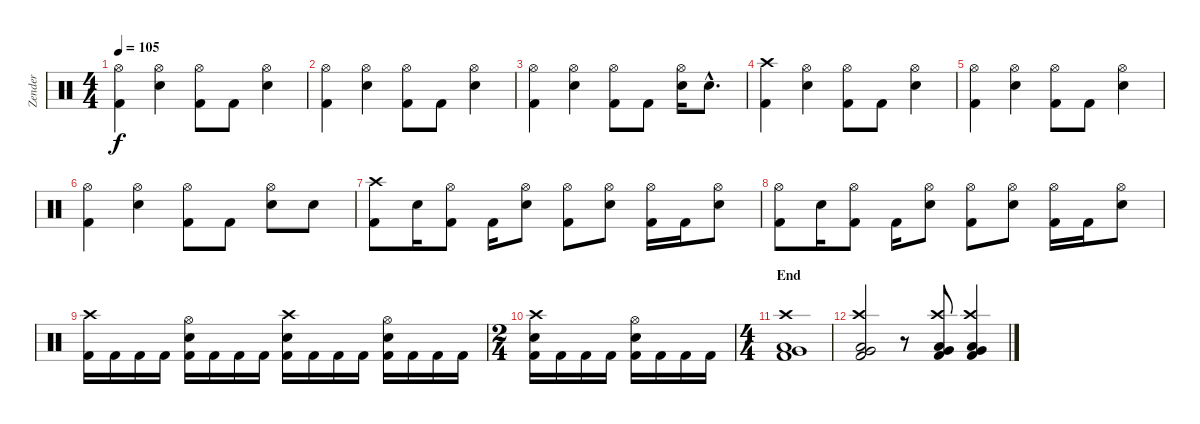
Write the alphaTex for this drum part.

\track ("Zender" "Zender") {instrument percussion}
\staff {score}
\articulation defaults
\ts (4 4)
\tempo 105
\clef neutral
\ks c
("Hi-Hat (open)" "Kick (hit) 2").4{dy f} ("Hi-Hat (open)" "Electric Snare (hit)").4 ("Hi-Hat (open)" "Kick (hit) 2").8 "Kick (hit) 2".8 ("Hi-Hat (open)" "Electric Snare (hit)").4 |
("Hi-Hat (open)" "Kick (hit) 2").4 ("Hi-Hat (open)" "Electric Snare (hit)").4 ("Hi-Hat (open)" "Kick (hit) 2").8 "Kick (hit) 2".8 ("Hi-Hat (open)" "Electric Snare (hit)").4 |
("Hi-Hat (open)" "Kick (hit) 2").4 ("Hi-Hat (open)" "Electric Snare (hit)").4 ("Hi-Hat (open)" "Kick (hit) 2").8 "Kick (hit) 2".8 ("Hi-Hat (open)" "Electric Snare (hit)").16 "Electric Snare (hit)"{hac}.8{d} |
("Crash high (hit)" "Kick (hit) 2").4 ("Hi-Hat (open)" "Electric Snare (hit)").4 ("Hi-Hat (open)" "Kick (hit) 2").8 "Kick (hit) 2".8 ("Hi-Hat (open)" "Electric Snare (hit)").4 |
("Hi-Hat (open)" "Kick (hit) 2").4 ("Hi-Hat (open)" "Electric Snare (hit)").4 ("Hi-Hat (open)" "Kick (hit) 2").8 "Kick (hit) 2".8 ("Hi-Hat (open)" "Electric Snare (hit)").4 |
("Hi-Hat (open)" "Kick (hit) 2").4 ("Hi-Hat (open)" "Electric Snare (hit)").4 ("Hi-Hat (open)" "Kick (hit) 2").8 "Kick (hit) 2".8 ("Hi-Hat (open)" "Electric Snare (hit)").8 "Electric Snare (hit)".8 |
("Crash high (hit)" "Kick (hit) 2").8 "Electric Snare (hit)".16 ("Hi-Hat (open)" "Kick (hit) 2").8 "Kick (hit) 2".16 ("Hi-Hat (open)" "Electric Snare (hit)").8 ("Hi-Hat (open)" "Kick (hit) 2").8 ("Hi-Hat (open)" "Electric Snare (hit)").8 ("Hi-Hat (open)" "Kick (hit) 2").16 "Kick (hit) 2".16 ("Hi-Hat (open)" "Electric Snare (hit)").8 |
("Hi-Hat (open)" "Kick (hit) 2").8 "Electric Snare (hit)".16 ("Hi-Hat (open)" "Kick (hit) 2").8 "Kick (hit) 2".16 ("Hi-Hat (open)" "Electric Snare (hit)").8 ("Hi-Hat (open)" "Kick (hit) 2").8 ("Hi-Hat (open)" "Electric Snare (hit)").8 ("Hi-Hat (open)" "Kick (hit) 2").16 "Kick (hit) 2".16 ("Hi-Hat (open)" "Electric Snare (hit)").8 |
("Crash high (hit)" "Kick (hit) 2").16 "Kick (hit) 2".16 "Kick (hit) 2".16 "Kick (hit) 2".16 ("Hi-Hat (open)" "Electric Snare (hit)" "Kick (hit) 2").16 "Kick (hit) 2".16 "Kick (hit) 2".16 "Kick (hit) 2".16 ("Crash high (hit)" "Electric Snare (hit)" "Kick (hit) 2").16 "Kick (hit) 2".16 "Kick (hit) 2".16 "Kick (hit) 2".16 ("Hi-Hat (open)" "Electric Snare (hit)" "Kick (hit) 2").16 "Kick (hit) 2".16 "Kick (hit) 2".16 "Kick (hit) 2".16 |
\ts (2 4)
("Crash high (hit)" "Electric Snare (hit)" "Kick (hit) 2").16 "Kick (hit) 2".16 "Kick (hit) 2".16 "Kick (hit) 2".16 ("Hi-Hat (open)" "Electric Snare (hit)" "Kick (hit) 2").16 "Kick (hit) 2".16 "Kick (hit) 2".16 "Kick (hit) 2".16 |
\ts (4 4)
\section ("" "End")
("Crash high (hit)" "Low Floor Tom (hit)" "Very Low Tom (hit)" "Kick (hit) 2").1 |
("Crash high (hit)" "Low Floor Tom (hit)" "Very Low Tom (hit)" "Kick (hit) 2").2 r.8 ("Crash high (hit)" "Low Floor Tom (hit)" "Very Low Tom (hit)" "Kick (hit) 2").8 ("Crash high (hit)" "Low Floor Tom (hit)" "Very Low Tom (hit)" "Kick (hit) 2").4
